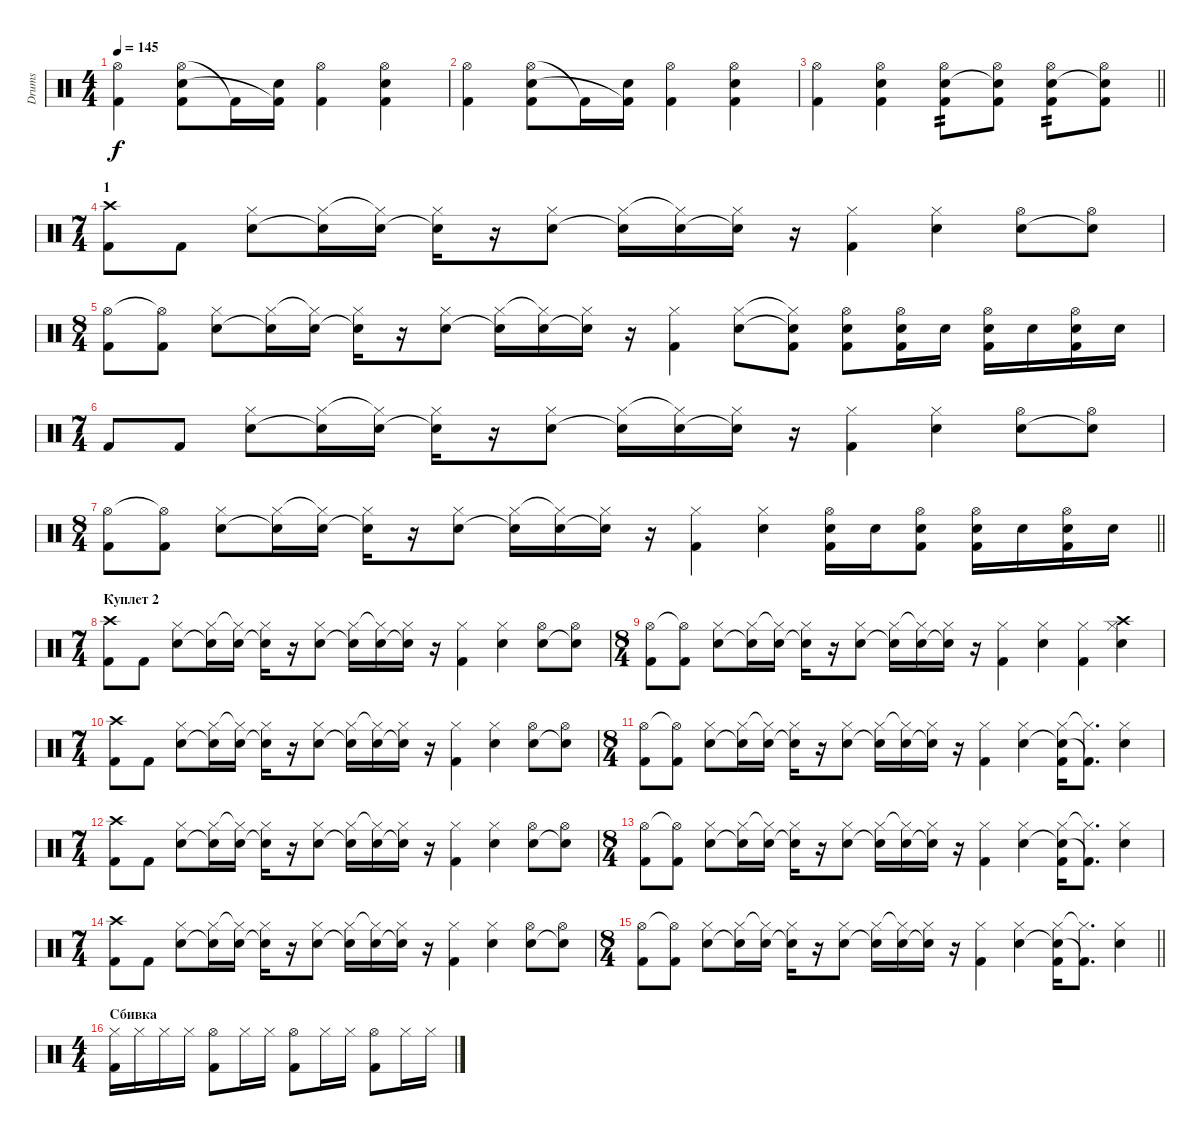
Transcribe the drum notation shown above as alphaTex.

\track ("Drums" "Drums") {instrument percussion}
\staff {score}
\articulation defaults
\ts (4 4)
\tempo 145
\clef neutral
\ks c
("Hi-Hat (open)" "Kick (hit) 2").4{dy f} ("Hi-Hat (open)" "Electric Snare (hit)" "Kick (hit) 2").8 "Kick (hit) 2"{t}.16 ("Electric Snare (hit)" "Kick (hit) 2"{t}).16 ("Hi-Hat (open)" "Kick (hit) 2").4 ("Hi-Hat (open)" "Electric Snare (hit)" "Kick (hit) 2").4 |
("Hi-Hat (open)" "Kick (hit) 2").4 ("Hi-Hat (open)" "Electric Snare (hit)" "Kick (hit) 2").8 "Kick (hit) 2"{t}.16 ("Electric Snare (hit)" "Kick (hit) 2"{t}).16 ("Hi-Hat (open)" "Kick (hit) 2").4 ("Hi-Hat (open)" "Electric Snare (hit)" "Kick (hit) 2").4 |
\barLineRight lightlight
("Hi-Hat (open)" "Kick (hit) 2").4 ("Hi-Hat (open)" "Electric Snare (hit)" "Kick (hit) 2").4 ("Hi-Hat (open)" "Electric Snare (hit)" "Kick (hit) 2").8{tp 2} ("Hi-Hat (open)" "Electric Snare (hit)"{t} "Kick (hit) 2").8 ("Hi-Hat (open)" "Electric Snare (hit)" "Kick (hit) 2").8{tp 2} ("Hi-Hat (open)" "Electric Snare (hit)"{t} "Kick (hit) 2").8 |
\ts (7 4)
\section ("" "1")
("Crash high (hit)" "Kick (hit) 2").8 "Kick (hit) 2".8 ("Hi-Hat (closed)" "Electric Snare (hit)").8 ("Hi-Hat (closed)" "Electric Snare (hit)"{t}).16 ("Hi-Hat (closed)"{t} "Electric Snare (hit)").16 ("Hi-Hat (closed)" "Electric Snare (hit)"{t}).16 r.16 ("Hi-Hat (closed)" "Electric Snare (hit)").8 ("Hi-Hat (closed)" "Electric Snare (hit)"{t}).16 ("Hi-Hat (closed)"{t} "Electric Snare (hit)").16 ("Hi-Hat (closed)" "Electric Snare (hit)"{t}).16 r.16 ("Hi-Hat (closed)" "Kick (hit) 2").4 ("Hi-Hat (closed)" "Electric Snare (hit)").4 ("Hi-Hat (open)" "Electric Snare (hit)").8 ("Hi-Hat (open)" "Electric Snare (hit)"{t}).8 |
\ts (8 4)
("Hi-Hat (open)" "Kick (hit) 2").8 ("Hi-Hat (open)"{t} "Kick (hit) 2").8 ("Hi-Hat (closed)" "Electric Snare (hit)").8 ("Hi-Hat (closed)" "Electric Snare (hit)"{t}).16 ("Hi-Hat (closed)"{t} "Electric Snare (hit)").16 ("Hi-Hat (closed)" "Electric Snare (hit)"{t}).16 r.16 ("Hi-Hat (closed)" "Electric Snare (hit)").8 ("Hi-Hat (closed)" "Electric Snare (hit)"{t}).16 ("Hi-Hat (closed)"{t} "Electric Snare (hit)").16 ("Hi-Hat (closed)" "Electric Snare (hit)"{t}).16 r.16 ("Hi-Hat (closed)" "Kick (hit) 2").4 ("Hi-Hat (closed)" "Electric Snare (hit)").8 ("Hi-Hat (closed)"{t} "Electric Snare (hit)"{t} "Kick (hit) 2").8 ("Hi-Hat (open)" "Electric Snare (hit)" "Kick (hit) 2").8 ("Hi-Hat (open)" "Electric Snare (hit)" "Kick (hit) 2").16 "Electric Snare (hit)".16 ("Hi-Hat (open)" "Electric Snare (hit)" "Kick (hit) 2").16 "Electric Snare (hit)".16 ("Hi-Hat (open)" "Electric Snare (hit)" "Kick (hit) 2").16 "Electric Snare (hit)".16 |
\ts (7 4)
"Kick (hit) 2".8 "Kick (hit) 2".8 ("Hi-Hat (closed)" "Electric Snare (hit)").8 ("Hi-Hat (closed)" "Electric Snare (hit)"{t}).16 ("Hi-Hat (closed)"{t} "Electric Snare (hit)").16 ("Hi-Hat (closed)" "Electric Snare (hit)"{t}).16 r.16 ("Hi-Hat (closed)" "Electric Snare (hit)").8 ("Hi-Hat (closed)" "Electric Snare (hit)"{t}).16 ("Hi-Hat (closed)"{t} "Electric Snare (hit)").16 ("Hi-Hat (closed)" "Electric Snare (hit)"{t}).16 r.16 ("Hi-Hat (closed)" "Kick (hit) 2").4 ("Hi-Hat (closed)" "Electric Snare (hit)").4 ("Hi-Hat (open)" "Electric Snare (hit)").8 ("Hi-Hat (open)" "Electric Snare (hit)"{t}).8 |
\ts (8 4)
\barLineRight lightlight
("Hi-Hat (open)" "Kick (hit) 2").8 ("Hi-Hat (open)"{t} "Kick (hit) 2").8 ("Hi-Hat (closed)" "Electric Snare (hit)").8 ("Hi-Hat (closed)" "Electric Snare (hit)"{t}).16 ("Hi-Hat (closed)"{t} "Electric Snare (hit)").16 ("Hi-Hat (closed)" "Electric Snare (hit)"{t}).16 r.16 ("Hi-Hat (closed)" "Electric Snare (hit)").8 ("Hi-Hat (closed)" "Electric Snare (hit)"{t}).16 ("Hi-Hat (closed)"{t} "Electric Snare (hit)").16 ("Hi-Hat (closed)" "Electric Snare (hit)"{t}).16 r.16 ("Hi-Hat (closed)" "Kick (hit) 2").4 ("Hi-Hat (closed)" "Electric Snare (hit)").4 ("Hi-Hat (open)" "Electric Snare (hit)" "Kick (hit) 2").16 "Electric Snare (hit)".16 ("Hi-Hat (open)" "Electric Snare (hit)" "Kick (hit) 2").8 ("Hi-Hat (open)" "Electric Snare (hit)" "Kick (hit) 2").16 "Electric Snare (hit)".16 ("Hi-Hat (open)" "Electric Snare (hit)" "Kick (hit) 2").16 "Electric Snare (hit)".16 |
\ts (7 4)
\section ("" "Куплет 2")
("Crash high (hit)" "Kick (hit) 2").8 "Kick (hit) 2".8 ("Hi-Hat (closed)" "Electric Snare (hit)").8 ("Hi-Hat (closed)" "Electric Snare (hit)"{t}).16 ("Hi-Hat (closed)"{t} "Electric Snare (hit)").16 ("Hi-Hat (closed)" "Electric Snare (hit)"{t}).16 r.16 ("Hi-Hat (closed)" "Electric Snare (hit)").8 ("Hi-Hat (closed)" "Electric Snare (hit)"{t}).16 ("Hi-Hat (closed)"{t} "Electric Snare (hit)").16 ("Hi-Hat (closed)" "Electric Snare (hit)"{t}).16 r.16 ("Hi-Hat (closed)" "Kick (hit) 2").4 ("Hi-Hat (closed)" "Electric Snare (hit)").4 ("Hi-Hat (open)" "Electric Snare (hit)").8 ("Hi-Hat (open)" "Electric Snare (hit)"{t}).8 |
\ts (8 4)
("Hi-Hat (open)" "Kick (hit) 2").8 ("Hi-Hat (open)"{t} "Kick (hit) 2").8 ("Hi-Hat (closed)" "Electric Snare (hit)").8 ("Hi-Hat (closed)" "Electric Snare (hit)"{t}).16 ("Hi-Hat (closed)"{t} "Electric Snare (hit)").16 ("Hi-Hat (closed)" "Electric Snare (hit)"{t}).16 r.16 ("Hi-Hat (closed)" "Electric Snare (hit)").8 ("Hi-Hat (closed)" "Electric Snare (hit)"{t}).16 ("Hi-Hat (closed)"{t} "Electric Snare (hit)").16 ("Hi-Hat (closed)" "Electric Snare (hit)"{t}).16 r.16 ("Hi-Hat (closed)" "Kick (hit) 2").4 ("Hi-Hat (closed)" "Electric Snare (hit)").4 ("Hi-Hat (closed)" "Kick (hit) 2").4 ("Crash high (hit)" "Hi-Hat (closed)" "Electric Snare (hit)").4 |
\ts (7 4)
("Crash high (hit)" "Kick (hit) 2").8 "Kick (hit) 2".8 ("Hi-Hat (closed)" "Electric Snare (hit)").8 ("Hi-Hat (closed)" "Electric Snare (hit)"{t}).16 ("Hi-Hat (closed)"{t} "Electric Snare (hit)").16 ("Hi-Hat (closed)" "Electric Snare (hit)"{t}).16 r.16 ("Hi-Hat (closed)" "Electric Snare (hit)").8 ("Hi-Hat (closed)" "Electric Snare (hit)"{t}).16 ("Hi-Hat (closed)"{t} "Electric Snare (hit)").16 ("Hi-Hat (closed)" "Electric Snare (hit)"{t}).16 r.16 ("Hi-Hat (closed)" "Kick (hit) 2").4 ("Hi-Hat (closed)" "Electric Snare (hit)").4 ("Hi-Hat (open)" "Electric Snare (hit)").8 ("Hi-Hat (open)" "Electric Snare (hit)"{t}).8 |
\ts (8 4)
("Hi-Hat (open)" "Kick (hit) 2").8 ("Hi-Hat (open)"{t} "Kick (hit) 2").8 ("Hi-Hat (closed)" "Electric Snare (hit)").8 ("Hi-Hat (closed)" "Electric Snare (hit)"{t}).16 ("Hi-Hat (closed)"{t} "Electric Snare (hit)").16 ("Hi-Hat (closed)" "Electric Snare (hit)"{t}).16 r.16 ("Hi-Hat (closed)" "Electric Snare (hit)").8 ("Hi-Hat (closed)" "Electric Snare (hit)"{t}).16 ("Hi-Hat (closed)"{t} "Electric Snare (hit)").16 ("Hi-Hat (closed)" "Electric Snare (hit)"{t}).16 r.16 ("Hi-Hat (closed)" "Kick (hit) 2").4 ("Hi-Hat (closed)" "Electric Snare (hit)").4 ("Hi-Hat (closed)" "Electric Snare (hit)"{t} "Kick (hit) 2").16 ("Hi-Hat (closed)"{t} "Kick (hit) 2"{t}).8{d} ("Hi-Hat (closed)" "Electric Snare (hit)").4 |
\ts (7 4)
("Crash high (hit)" "Kick (hit) 2").8 "Kick (hit) 2".8 ("Hi-Hat (closed)" "Electric Snare (hit)").8 ("Hi-Hat (closed)" "Electric Snare (hit)"{t}).16 ("Hi-Hat (closed)"{t} "Electric Snare (hit)").16 ("Hi-Hat (closed)" "Electric Snare (hit)"{t}).16 r.16 ("Hi-Hat (closed)" "Electric Snare (hit)").8 ("Hi-Hat (closed)" "Electric Snare (hit)"{t}).16 ("Hi-Hat (closed)"{t} "Electric Snare (hit)").16 ("Hi-Hat (closed)" "Electric Snare (hit)"{t}).16 r.16 ("Hi-Hat (closed)" "Kick (hit) 2").4 ("Hi-Hat (closed)" "Electric Snare (hit)").4 ("Hi-Hat (open)" "Electric Snare (hit)").8 ("Hi-Hat (open)" "Electric Snare (hit)"{t}).8 |
\ts (8 4)
("Hi-Hat (open)" "Kick (hit) 2").8 ("Hi-Hat (open)"{t} "Kick (hit) 2").8 ("Hi-Hat (closed)" "Electric Snare (hit)").8 ("Hi-Hat (closed)" "Electric Snare (hit)"{t}).16 ("Hi-Hat (closed)"{t} "Electric Snare (hit)").16 ("Hi-Hat (closed)" "Electric Snare (hit)"{t}).16 r.16 ("Hi-Hat (closed)" "Electric Snare (hit)").8 ("Hi-Hat (closed)" "Electric Snare (hit)"{t}).16 ("Hi-Hat (closed)"{t} "Electric Snare (hit)").16 ("Hi-Hat (closed)" "Electric Snare (hit)"{t}).16 r.16 ("Hi-Hat (closed)" "Kick (hit) 2").4 ("Hi-Hat (closed)" "Electric Snare (hit)").4 ("Hi-Hat (closed)" "Electric Snare (hit)"{t} "Kick (hit) 2").16 ("Hi-Hat (closed)"{t} "Kick (hit) 2"{t}).8{d} ("Hi-Hat (closed)" "Electric Snare (hit)").4 |
\ts (7 4)
("Crash high (hit)" "Kick (hit) 2").8 "Kick (hit) 2".8 ("Hi-Hat (closed)" "Electric Snare (hit)").8 ("Hi-Hat (closed)" "Electric Snare (hit)"{t}).16 ("Hi-Hat (closed)"{t} "Electric Snare (hit)").16 ("Hi-Hat (closed)" "Electric Snare (hit)"{t}).16 r.16 ("Hi-Hat (closed)" "Electric Snare (hit)").8 ("Hi-Hat (closed)" "Electric Snare (hit)"{t}).16 ("Hi-Hat (closed)"{t} "Electric Snare (hit)").16 ("Hi-Hat (closed)" "Electric Snare (hit)"{t}).16 r.16 ("Hi-Hat (closed)" "Kick (hit) 2").4 ("Hi-Hat (closed)" "Electric Snare (hit)").4 ("Hi-Hat (open)" "Electric Snare (hit)").8 ("Hi-Hat (open)" "Electric Snare (hit)"{t}).8 |
\ts (8 4)
\barLineRight lightlight
("Hi-Hat (open)" "Kick (hit) 2").8 ("Hi-Hat (open)"{t} "Kick (hit) 2").8 ("Hi-Hat (closed)" "Electric Snare (hit)").8 ("Hi-Hat (closed)" "Electric Snare (hit)"{t}).16 ("Hi-Hat (closed)"{t} "Electric Snare (hit)").16 ("Hi-Hat (closed)" "Electric Snare (hit)"{t}).16 r.16 ("Hi-Hat (closed)" "Electric Snare (hit)").8 ("Hi-Hat (closed)" "Electric Snare (hit)"{t}).16 ("Hi-Hat (closed)"{t} "Electric Snare (hit)").16 ("Hi-Hat (closed)" "Electric Snare (hit)"{t}).16 r.16 ("Hi-Hat (closed)" "Kick (hit) 2").4 ("Hi-Hat (closed)" "Electric Snare (hit)").4 ("Hi-Hat (closed)" "Electric Snare (hit)"{t} "Kick (hit) 2").16 ("Hi-Hat (closed)"{t} "Kick (hit) 2"{t}).8{d} ("Hi-Hat (closed)" "Electric Snare (hit)").4 |
\ts (4 4)
\section ("" "Сбивка")
("Hi-Hat (closed)" "Kick (hit) 2").16 "Hi-Hat (closed)".16 "Hi-Hat (closed)".16 "Hi-Hat (closed)".16 ("Hi-Hat (open)" "Kick (hit) 2").8 "Hi-Hat (closed)".16 "Hi-Hat (closed)".16 ("Hi-Hat (open)" "Kick (hit) 2").8 "Hi-Hat (closed)".16 "Hi-Hat (closed)".16 ("Hi-Hat (open)" "Kick (hit) 2").8 "Hi-Hat (closed)".16 "Hi-Hat (closed)".16
